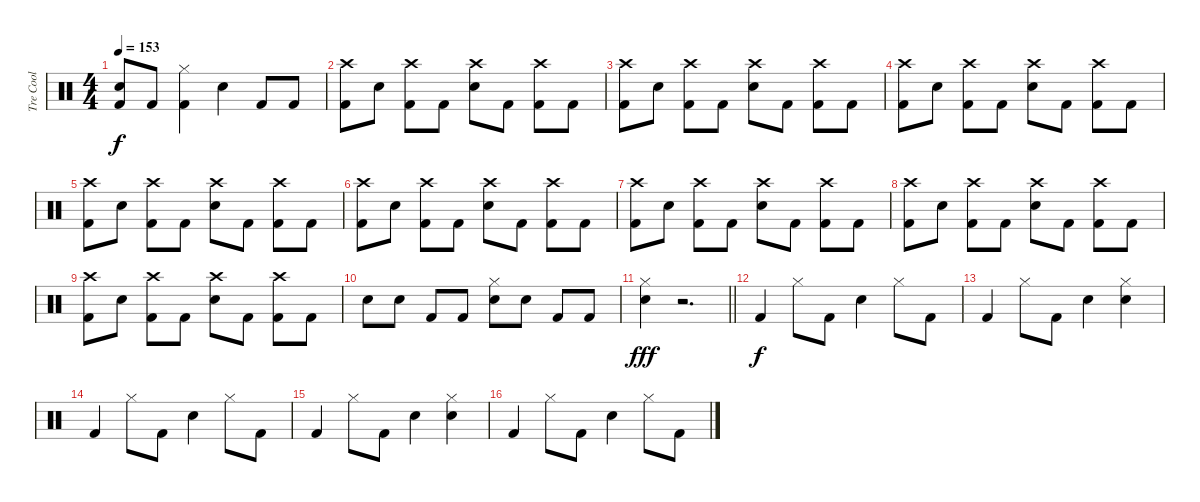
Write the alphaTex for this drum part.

\track ("Tre Cool" "Tre Cool") {instrument percussion}
\staff {score}
\articulation defaults
\ts (4 4)
\tempo 153
\clef neutral
\ks c
("Kick (hit) 2"{t} "Snare (hit)"{t}).8{dy f} "Kick (hit) 2".8 ("Kick (hit) 2" "Hi-Hat (closed)").4 "Snare (hit) 2".4 "Kick (hit) 2".8 "Kick (hit) 2".8 |
("Kick (hit) 2" "Crash high (hit)").8 "Snare (hit) 2".8 ("Kick (hit) 2" "Crash high (hit)").8 "Kick (hit) 2".8 ("Snare (hit) 2" "Crash high (hit)").8 "Kick (hit) 2".8 ("Kick (hit) 2" "Crash high (hit)").8 "Kick (hit) 2".8 |
("Kick (hit) 2" "Crash high (hit)").8 "Snare (hit) 2".8 ("Kick (hit) 2" "Crash high (hit)").8 "Kick (hit) 2".8 ("Snare (hit) 2" "Crash high (hit)").8 "Kick (hit) 2".8 ("Kick (hit) 2" "Crash high (hit)").8 "Kick (hit) 2".8 |
("Kick (hit) 2" "Crash high (hit)").8 "Snare (hit) 2".8 ("Kick (hit) 2" "Crash high (hit)").8 "Kick (hit) 2".8 ("Snare (hit) 2" "Crash high (hit)").8 "Kick (hit) 2".8 ("Kick (hit) 2" "Crash high (hit)").8 "Kick (hit) 2".8 |
("Kick (hit) 2" "Crash high (hit)").8 "Snare (hit) 2".8 ("Kick (hit) 2" "Crash high (hit)").8 "Kick (hit) 2".8 ("Snare (hit) 2" "Crash high (hit)").8 "Kick (hit) 2".8 ("Kick (hit) 2" "Crash high (hit)").8 "Kick (hit) 2".8 |
("Kick (hit) 2" "Crash high (hit)").8 "Snare (hit) 2".8 ("Kick (hit) 2" "Crash high (hit)").8 "Kick (hit) 2".8 ("Snare (hit) 2" "Crash high (hit)").8 "Kick (hit) 2".8 ("Kick (hit) 2" "Crash high (hit)").8 "Kick (hit) 2".8 |
("Kick (hit) 2" "Crash high (hit)").8 "Snare (hit) 2".8 ("Kick (hit) 2" "Crash high (hit)").8 "Kick (hit) 2".8 ("Snare (hit) 2" "Crash high (hit)").8 "Kick (hit) 2".8 ("Kick (hit) 2" "Crash high (hit)").8 "Kick (hit) 2".8 |
("Kick (hit) 2" "Crash high (hit)").8 "Snare (hit) 2".8 ("Kick (hit) 2" "Crash high (hit)").8 "Kick (hit) 2".8 ("Snare (hit) 2" "Crash high (hit)").8 "Kick (hit) 2".8 ("Kick (hit) 2" "Crash high (hit)").8 "Kick (hit) 2".8 |
("Kick (hit) 2" "Crash high (hit)").8 "Snare (hit) 2".8 ("Kick (hit) 2" "Crash high (hit)").8 "Kick (hit) 2".8 ("Snare (hit) 2" "Crash high (hit)").8 "Kick (hit) 2".8 ("Kick (hit) 2" "Crash high (hit)").8 "Kick (hit) 2".8 |
"Snare (hit) 2".8 "Snare (hit) 2".8 "Kick (hit) 2".8 "Kick (hit) 2".8 ("Snare (hit) 2" "Hi-Hat (closed)").8 "Snare (hit) 2".8 "Kick (hit) 2".8 "Kick (hit) 2".8 |
\barLineRight lightlight
("Snare (hit) 2" "Hi-Hat (closed)").4{dy fff} r.2{d} |
"Kick (hit) 2".4{dy f} "Hi-Hat (closed)".8 "Kick (hit) 2".8 "Snare (hit) 2".4 "Hi-Hat (closed)".8 "Kick (hit) 2".8 |
"Kick (hit) 2".4 "Hi-Hat (closed)".8 "Kick (hit) 2".8 "Snare (hit) 2".4 ("Snare (hit) 2" "Hi-Hat (closed)").4 |
"Kick (hit) 2".4 "Hi-Hat (closed)".8 "Kick (hit) 2".8 "Snare (hit) 2".4 "Hi-Hat (closed)".8 "Kick (hit) 2".8 |
"Kick (hit) 2".4 "Hi-Hat (closed)".8 "Kick (hit) 2".8 "Snare (hit) 2".4 ("Snare (hit) 2" "Hi-Hat (closed)").4 |
"Kick (hit) 2".4 "Hi-Hat (closed)".8 "Kick (hit) 2".8 "Snare (hit) 2".4 "Hi-Hat (closed)".8 "Kick (hit) 2".8
